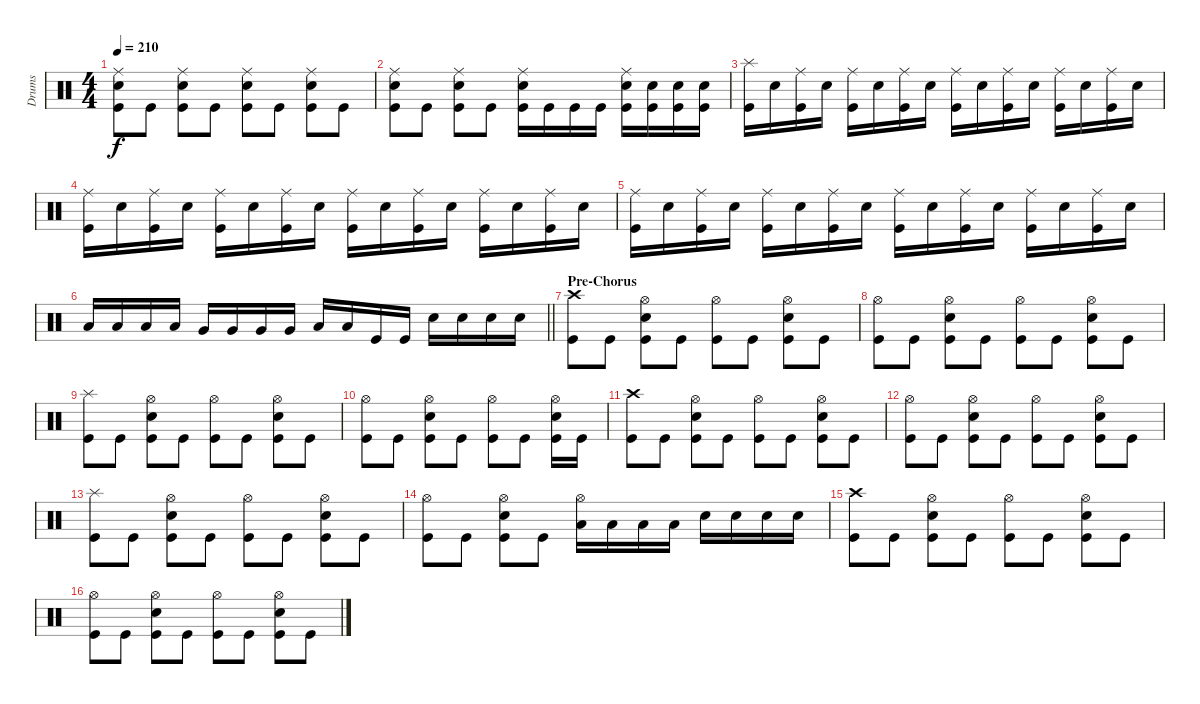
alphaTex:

\track ("Drums" "Drums") {instrument percussion}
\staff {score}
\articulation defaults
\ts (4 4)
\tempo 210
\clef neutral
\ks c
("Ride (middle)" "Electric Snare (hit)" "Kick (hit)").8{dy f} "Kick (hit)".8 ("Ride (middle)" "Electric Snare (hit)" "Kick (hit)").8 "Kick (hit)".8 ("Ride (middle)" "Electric Snare (hit)" "Kick (hit)").8 "Kick (hit)".8 ("Ride (middle)" "Electric Snare (hit)" "Kick (hit)").8 "Kick (hit)".8 |
("Ride (middle)" "Electric Snare (hit)" "Kick (hit)").8 "Kick (hit)".8 ("Ride (middle)" "Electric Snare (hit)" "Kick (hit)").8 "Kick (hit)".8 ("Ride (middle)" "Electric Snare (hit)" "Kick (hit)").16 "Kick (hit)".16 "Kick (hit)".16 "Kick (hit)".16 ("Ride (middle)" "Electric Snare (hit)" "Kick (hit)").16 ("Electric Snare (hit)" "Kick (hit)").16 ("Electric Snare (hit)" "Kick (hit)").16 ("Electric Snare (hit)" "Kick (hit)").16 |
("Splash (hit)" "Kick (hit)").16 "Electric Snare (hit)".16 ("Ride (middle)" "Kick (hit)").16 "Electric Snare (hit)".16 ("Ride (middle)" "Kick (hit)").16 "Electric Snare (hit)".16 ("Ride (middle)" "Kick (hit)").16 "Electric Snare (hit)".16 ("Ride (middle)" "Kick (hit)").16 "Electric Snare (hit)".16 ("Ride (middle)" "Kick (hit)").16 "Electric Snare (hit)".16 ("Ride (middle)" "Kick (hit)").16 "Electric Snare (hit)".16 ("Ride (middle)" "Kick (hit)").16 "Electric Snare (hit)".16 |
("Ride (middle)" "Kick (hit)").16 "Electric Snare (hit)".16 ("Ride (middle)" "Kick (hit)").16 "Electric Snare (hit)".16 ("Ride (middle)" "Kick (hit)").16 "Electric Snare (hit)".16 ("Ride (middle)" "Kick (hit)").16 "Electric Snare (hit)".16 ("Ride (middle)" "Kick (hit)").16 "Electric Snare (hit)".16 ("Ride (middle)" "Kick (hit)").16 "Electric Snare (hit)".16 ("Ride (middle)" "Kick (hit)").16 "Electric Snare (hit)".16 ("Ride (middle)" "Kick (hit)").16 "Electric Snare (hit)".16 |
("Ride (middle)" "Kick (hit)").16 "Electric Snare (hit)".16 ("Ride (middle)" "Kick (hit)").16 "Electric Snare (hit)".16 ("Ride (middle)" "Kick (hit)").16 "Electric Snare (hit)".16 ("Ride (middle)" "Kick (hit)").16 "Electric Snare (hit)".16 ("Ride (middle)" "Kick (hit)").16 "Electric Snare (hit)".16 ("Ride (middle)" "Kick (hit)").16 "Electric Snare (hit)".16 ("Ride (middle)" "Kick (hit)").16 "Electric Snare (hit)".16 ("Ride (middle)" "Kick (hit)").16 "Electric Snare (hit)".16 |
\barLineRight lightlight "Low Tom (hit)".16 "Low Tom (hit)".16 "Low Tom (hit)".16 "Low Tom (hit)".16 "Very Low Tom (hit)".16 "Very Low Tom (hit)".16 "Very Low Tom (hit)".16 "Very Low Tom (hit)".16 "Low Floor Tom (hit)".16 "Low Floor Tom (hit)".16 "Kick (hit)".16 "Kick (hit)".16 "Electric Snare (hit)".16 "Electric Snare (hit)".16 "Electric Snare (hit)".16 "Electric Snare (hit)".16
|
\section ("" "Pre-Chorus")
("Crash high (hit)" "Kick (hit)").8 "Kick (hit)".8 ("Hi-Hat (open)" "Electric Snare (hit)" "Kick (hit)").8 "Kick (hit)".8 ("Hi-Hat (open)" "Kick (hit)").8 "Kick (hit)".8 ("Hi-Hat (open)" "Electric Snare (hit)" "Kick (hit)").8 "Kick (hit)".8 |
("Hi-Hat (open)" "Kick (hit)").8 "Kick (hit)".8 ("Hi-Hat (open)" "Electric Snare (hit)" "Kick (hit)").8 "Kick (hit)".8 ("Hi-Hat (open)" "Kick (hit)").8 "Kick (hit)".8 ("Hi-Hat (open)" "Electric Snare (hit)" "Kick (hit)").8 "Kick (hit)".8 |
("Splash (hit)" "Kick (hit)").8 "Kick (hit)".8 ("Hi-Hat (open)" "Electric Snare (hit)" "Kick (hit)").8 "Kick (hit)".8 ("Hi-Hat (open)" "Kick (hit)").8 "Kick (hit)".8 ("Hi-Hat (open)" "Electric Snare (hit)" "Kick (hit)").8 "Kick (hit)".8 |
("Hi-Hat (open)" "Kick (hit)").8 "Kick (hit)".8 ("Hi-Hat (open)" "Electric Snare (hit)" "Kick (hit)").8 "Kick (hit)".8 ("Hi-Hat (open)" "Kick (hit)").8 "Kick (hit)".8 ("Hi-Hat (open)" "Electric Snare (hit)" "Kick (hit)").16 "Kick (hit)".16 |
("Crash high (hit)" "Kick (hit)").8 "Kick (hit)".8 ("Hi-Hat (open)" "Electric Snare (hit)" "Kick (hit)").8 "Kick (hit)".8 ("Hi-Hat (open)" "Kick (hit)").8 "Kick (hit)".8 ("Hi-Hat (open)" "Electric Snare (hit)" "Kick (hit)").8 "Kick (hit)".8 |
("Hi-Hat (open)" "Kick (hit)").8 "Kick (hit)".8 ("Hi-Hat (open)" "Electric Snare (hit)" "Kick (hit)").8 "Kick (hit)".8 ("Hi-Hat (open)" "Kick (hit)").8 "Kick (hit)".8 ("Hi-Hat (open)" "Electric Snare (hit)" "Kick (hit)").8 "Kick (hit)".8 |
("Splash (hit)" "Kick (hit)").8 "Kick (hit)".8 ("Hi-Hat (open)" "Electric Snare (hit)" "Kick (hit)").8 "Kick (hit)".8 ("Hi-Hat (open)" "Kick (hit)").8 "Kick (hit)".8 ("Hi-Hat (open)" "Electric Snare (hit)" "Kick (hit)").8 "Kick (hit)".8 |
("Hi-Hat (open)" "Kick (hit)").8 "Kick (hit)".8 ("Hi-Hat (open)" "Electric Snare (hit)" "Kick (hit)").8 "Kick (hit)".8 ("Hi-Hat (open)" "Low Tom (hit)").16 "Low Tom (hit)".16 "Low Tom (hit)".16 "Low Tom (hit)".16 "Electric Snare (hit)".16 "Electric Snare (hit)".16 "Electric Snare (hit)".16 "Electric Snare (hit)".16 |
("Crash high (hit)" "Kick (hit)").8 "Kick (hit)".8 ("Hi-Hat (open)" "Electric Snare (hit)" "Kick (hit)").8 "Kick (hit)".8 ("Hi-Hat (open)" "Kick (hit)").8 "Kick (hit)".8 ("Hi-Hat (open)" "Electric Snare (hit)" "Kick (hit)").8 "Kick (hit)".8 |
("Hi-Hat (open)" "Kick (hit)").8 "Kick (hit)".8 ("Hi-Hat (open)" "Electric Snare (hit)" "Kick (hit)").8 "Kick (hit)".8 ("Hi-Hat (open)" "Kick (hit)").8 "Kick (hit)".8 ("Hi-Hat (open)" "Electric Snare (hit)" "Kick (hit)").8 "Kick (hit)".8
